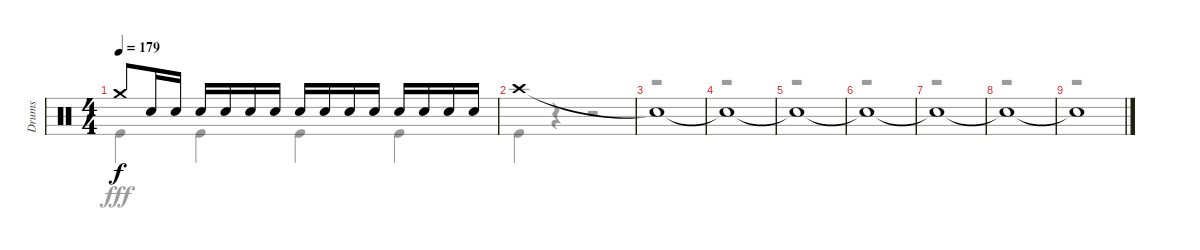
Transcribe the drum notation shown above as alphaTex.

\track ("Drums" "Drums") {instrument percussion}
\staff {score}
\articulation defaults
\voice
\ts (4 4)
\tempo 179
\clef neutral
\ks c "Crash medium (hit)".8{dy f} "Snare (hit) 2".16 "Snare (hit) 2".16 "Snare (hit) 2".16 "Snare (hit) 2".16 "Snare (hit) 2".16 "Snare (hit) 2".16 "Snare (hit) 2".16 "Snare (hit) 2".16 "Snare (hit) 2".16 "Snare (hit) 2".16 "Snare (hit) 2".16 "Snare (hit) 2".16 "Snare (hit) 2".16 "Snare (hit) 2".16
|
"Crash high (hit)".1 |
"Snare (hit)"{t}.1 |
"Snare (hit)"{t}.1 |
"Snare (hit)"{t}.1 |
"Snare (hit)"{t}.1 |
"Snare (hit)"{t}.1 |
"Snare (hit)"{t}.1 |
"Snare (hit)"{t}.1
\voice
\clef neutral
\ottava regular
\simile none
\ks c "Kick (hit)".4{dy fff} "Kick (hit)".4 "Kick (hit)".4 "Kick (hit)".4
|
"Kick (hit)".4 r.4 r.2 |
r.1 |
r.1 |
r.1 |
r.1 |
r.1 |
r.1 |
r.1
